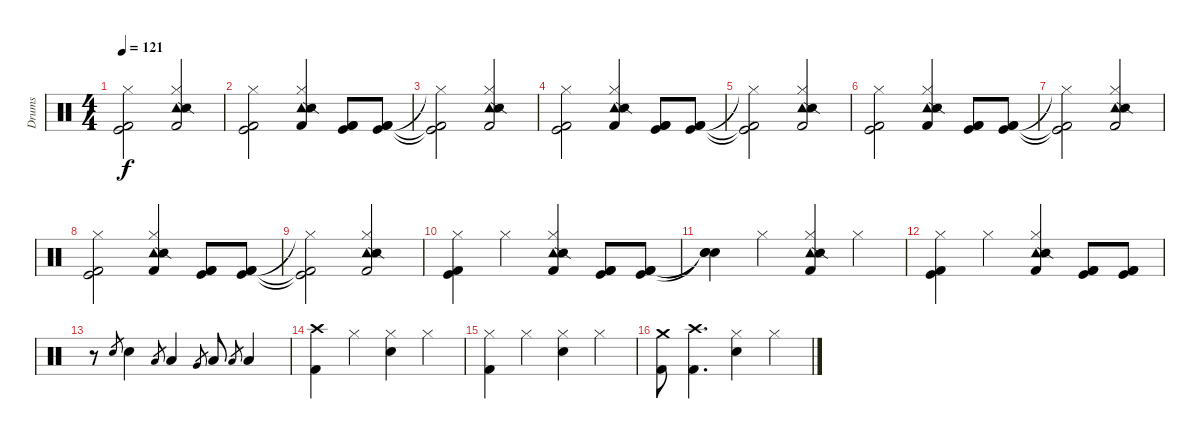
\track ("Drums" "Drums") {instrument percussion}
\staff {score}
\articulation defaults
\ts (4 4)
\tempo 121
\clef neutral
\ks c
("Kick (hit) 2"{t} "Kick (hit)"{t} "Hi-Hat (closed)"{t}).2{dy f} ("Tambourine (hit)" "Snare (side stick) 2" "Kick (hit) 2" "Hi-Hat (closed)").2 |
("Kick (hit) 2" "Kick (hit)" "Hi-Hat (closed)").2 ("Tambourine (hit)" "Snare (side stick) 2" "Kick (hit) 2" "Hi-Hat (closed)").4 ("Kick (hit) 2" "Kick (hit)" "Kick (hit) 2").8 ("Kick (hit) 2" "Kick (hit)" "Kick (hit) 2").8 |
("Kick (hit) 2"{t} "Kick (hit)"{t} "Hi-Hat (closed)"{t}).2 ("Tambourine (hit)" "Snare (side stick) 2" "Kick (hit) 2" "Hi-Hat (closed)").2 |
("Kick (hit) 2" "Kick (hit)" "Hi-Hat (closed)").2 ("Tambourine (hit)" "Snare (side stick) 2" "Kick (hit) 2" "Hi-Hat (closed)").4 ("Kick (hit) 2" "Kick (hit)" "Kick (hit) 2").8 ("Kick (hit) 2" "Kick (hit)" "Kick (hit) 2").8 |
("Kick (hit) 2"{t} "Kick (hit)"{t} "Hi-Hat (closed)"{t}).2 ("Tambourine (hit)" "Snare (side stick) 2" "Kick (hit) 2" "Hi-Hat (closed)").2 |
("Kick (hit) 2" "Kick (hit)" "Hi-Hat (closed)").2 ("Tambourine (hit)" "Snare (side stick) 2" "Kick (hit) 2" "Hi-Hat (closed)").4 ("Kick (hit) 2" "Kick (hit)" "Kick (hit) 2").8 ("Kick (hit) 2" "Kick (hit)" "Kick (hit) 2").8 |
("Kick (hit) 2"{t} "Kick (hit)"{t} "Hi-Hat (closed)"{t}).2 ("Tambourine (hit)" "Snare (side stick) 2" "Kick (hit) 2" "Hi-Hat (closed)").2 |
("Kick (hit) 2" "Kick (hit)" "Hi-Hat (closed)").2 ("Tambourine (hit)" "Snare (side stick) 2" "Kick (hit) 2" "Hi-Hat (closed)").4 ("Kick (hit) 2" "Kick (hit)" "Kick (hit) 2").8 ("Kick (hit) 2" "Kick (hit)" "Kick (hit) 2").8 |
("Kick (hit) 2"{t} "Kick (hit)"{t} "Hi-Hat (closed)"{t}).2 ("Tambourine (hit)" "Snare (side stick) 2" "Kick (hit) 2" "Hi-Hat (closed)").2 |
("Kick (hit) 2" "Kick (hit)" "Hi-Hat (closed)").4 "Hi-Hat (closed)".4 ("Tambourine (hit)" "Snare (side stick) 2" "Kick (hit) 2" "Hi-Hat (closed)").4 ("Kick (hit) 2" "Kick (hit)" "Kick (hit) 2").8 ("Kick (hit) 2" "Kick (hit)" "Kick (hit) 2").8 |
("Snare (hit)"{t} "Snare (hit)"{t} "Snare (hit)"{t}).4 "Hi-Hat (closed)".4 ("Tambourine (hit)" "Snare (side stick) 2" "Kick (hit) 2" "Hi-Hat (closed)").4 "Hi-Hat (closed)".4 |
("Kick (hit) 2" "Kick (hit)" "Hi-Hat (closed)").4 "Hi-Hat (closed)".4 ("Tambourine (hit)" "Snare (side stick) 2" "Kick (hit) 2" "Hi-Hat (closed)").4 ("Kick (hit) 2" "Kick (hit)" "Kick (hit) 2").8 ("Kick (hit) 2" "Kick (hit)" "Kick (hit) 2").8 |
r.8 "Snare (hit) 2".8{gr} "Snare (hit) 2".4 "Low Tom (hit)".8{gr} "Low Tom (hit)".4 "Very Low Tom (hit)".8{gr} "Low Tom (hit)".8 "Low Tom (hit)".8{gr} "Low Tom (hit)".4 |
("Crash high (hit)" "Kick (hit) 2").4 "Hi-Hat (closed)".4 ("Hi-Hat (closed)" "Electric Snare (hit)").4 "Hi-Hat (closed)".4 |
("Hi-Hat (closed)" "Kick (hit) 2").4 "Hi-Hat (closed)".4 ("Hi-Hat (closed)" "Electric Snare (hit)").4 "Hi-Hat (closed)".4 |
("Crash medium (hit)" "Kick (hit) 2").8 ("Crash high (hit)" "Kick (hit) 2").4{d} ("Hi-Hat (closed)" "Electric Snare (hit)").4 "Hi-Hat (closed)".4
